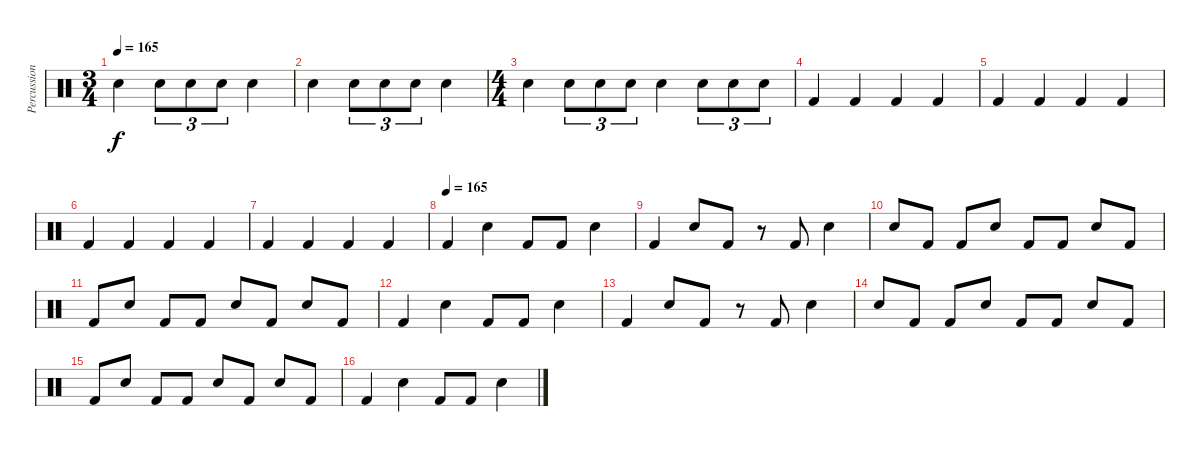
\track ("Percussion" "Percussion") {instrument percussion}
\staff {score}
\articulation defaults
\ts (3 4)
\tempo 165
\clef neutral
\ks c "Snare (hit) 2".4{dy f} "Snare (hit) 2".8{tu (3 2)} "Snare (hit) 2".8{tu (3 2)} "Snare (hit) 2".8{tu (3 2)} "Snare (hit) 2".4
|
"Snare (hit) 2".4 "Snare (hit) 2".8{tu (3 2)} "Snare (hit) 2".8{tu (3 2)} "Snare (hit) 2".8{tu (3 2)} "Snare (hit) 2".4 |
\ts (4 4)
"Snare (hit) 2".4 "Snare (hit) 2".8{tu (3 2)} "Snare (hit) 2".8{tu (3 2)} "Snare (hit) 2".8{tu (3 2)} "Snare (hit) 2".4 "Snare (hit) 2".8{tu (3 2)} "Snare (hit) 2".8{tu (3 2)} "Snare (hit) 2".8{tu (3 2)} |
"Kick (hit) 2".4 "Kick (hit) 2".4 "Kick (hit) 2".4 "Kick (hit) 2".4 |
"Kick (hit) 2".4 "Kick (hit) 2".4 "Kick (hit) 2".4 "Kick (hit) 2".4 |
"Kick (hit) 2".4 "Kick (hit) 2".4 "Kick (hit) 2".4 "Kick (hit) 2".4 |
"Kick (hit) 2".4 "Kick (hit) 2".4 "Kick (hit) 2".4 "Kick (hit) 2".4 |
\tempo (165)
"Kick (hit) 2".4 "Snare (hit) 2".4 "Kick (hit) 2".8 "Kick (hit) 2".8 "Snare (hit) 2".4 |
"Kick (hit) 2".4 "Snare (hit) 2".8 "Kick (hit) 2".8 r.8 "Kick (hit) 2".8 "Snare (hit) 2".4 |
"Snare (hit) 2".8 "Kick (hit) 2".8 "Kick (hit) 2".8 "Snare (hit) 2".8 "Kick (hit) 2".8 "Kick (hit) 2".8 "Snare (hit) 2".8 "Kick (hit) 2".8 |
"Kick (hit) 2".8 "Snare (hit) 2".8 "Kick (hit) 2".8 "Kick (hit) 2".8 "Snare (hit) 2".8 "Kick (hit) 2".8 "Snare (hit) 2".8 "Kick (hit) 2".8 |
"Kick (hit) 2".4 "Snare (hit) 2".4 "Kick (hit) 2".8 "Kick (hit) 2".8 "Snare (hit) 2".4 |
"Kick (hit) 2".4 "Snare (hit) 2".8 "Kick (hit) 2".8 r.8 "Kick (hit) 2".8 "Snare (hit) 2".4 |
"Snare (hit) 2".8 "Kick (hit) 2".8 "Kick (hit) 2".8 "Snare (hit) 2".8 "Kick (hit) 2".8 "Kick (hit) 2".8 "Snare (hit) 2".8 "Kick (hit) 2".8 |
"Kick (hit) 2".8 "Snare (hit) 2".8 "Kick (hit) 2".8 "Kick (hit) 2".8 "Snare (hit) 2".8 "Kick (hit) 2".8 "Snare (hit) 2".8 "Kick (hit) 2".8 |
"Kick (hit) 2".4 "Snare (hit) 2".4 "Kick (hit) 2".8 "Kick (hit) 2".8 "Snare (hit) 2".4
